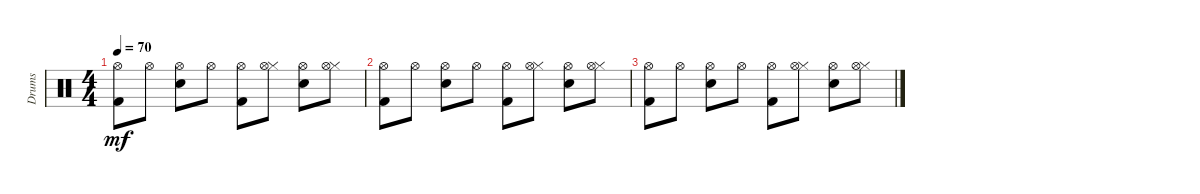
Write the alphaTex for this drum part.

\track ("Drums" "Drums") {instrument percussion}
\staff {score}
\articulation defaults
\ts (4 4)
\tempo 70
\clef neutral
\ks c
("Kick (hit) 2" "Hi-Hat (open)").8{dy mf} "Hi-Hat (open)".8 ("Snare (hit) 2" "Hi-Hat (open)").8 "Hi-Hat (open)".8 ("Kick (hit) 2" "Hi-Hat (open)").8 ("Hi-Hat (closed)" "Hi-Hat (open)").8 ("Snare (hit) 2" "Hi-Hat (open)").8 ("Hi-Hat (closed)" "Hi-Hat (open)").8 |
("Kick (hit) 2" "Hi-Hat (open)").8 "Hi-Hat (open)".8 ("Snare (hit) 2" "Hi-Hat (open)").8 "Hi-Hat (open)".8 ("Kick (hit) 2" "Hi-Hat (open)").8 ("Hi-Hat (closed)" "Hi-Hat (open)").8 ("Snare (hit) 2" "Hi-Hat (open)").8 ("Hi-Hat (closed)" "Hi-Hat (open)").8 |
("Kick (hit) 2" "Hi-Hat (open)").8 "Hi-Hat (open)".8 ("Snare (hit) 2" "Hi-Hat (open)").8 "Hi-Hat (open)".8 ("Kick (hit) 2" "Hi-Hat (open)").8 ("Hi-Hat (closed)" "Hi-Hat (open)").8 ("Snare (hit) 2" "Hi-Hat (open)").8 ("Hi-Hat (closed)" "Hi-Hat (open)").8
